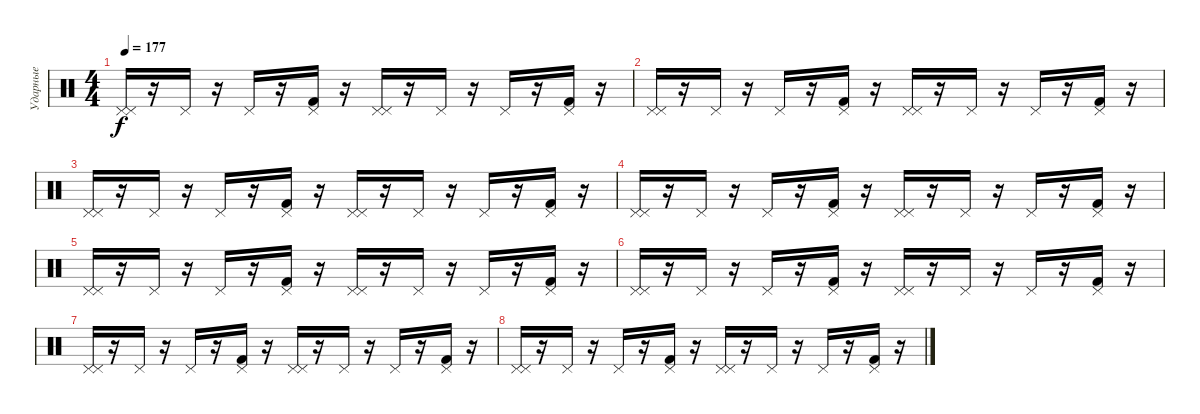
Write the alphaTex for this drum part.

\track ("Ударные" "Ударные") {instrument percussion}
\staff {score}
\articulation defaults
\ts (4 4)
\tempo 177
\clef neutral
\ks c
("Pedal Hi-Hat (hit)" "Pedal Hi-Hat (hit)").16{dy f} r.16 "Pedal Hi-Hat (hit)".16 r.16 "Pedal Hi-Hat (hit)".16 r.16 ("Kick (hit) 2" "Pedal Hi-Hat (hit)").16 r.16 ("Pedal Hi-Hat (hit)" "Pedal Hi-Hat (hit)").16 r.16 "Pedal Hi-Hat (hit)".16 r.16 "Pedal Hi-Hat (hit)".16 r.16 ("Kick (hit) 2" "Pedal Hi-Hat (hit)").16 r.16 |
("Pedal Hi-Hat (hit)" "Pedal Hi-Hat (hit)").16 r.16 "Pedal Hi-Hat (hit)".16 r.16 "Pedal Hi-Hat (hit)".16 r.16 ("Kick (hit) 2" "Pedal Hi-Hat (hit)").16 r.16 ("Pedal Hi-Hat (hit)" "Pedal Hi-Hat (hit)").16 r.16 "Pedal Hi-Hat (hit)".16 r.16 "Pedal Hi-Hat (hit)".16 r.16 ("Kick (hit) 2" "Pedal Hi-Hat (hit)").16 r.16 |
("Pedal Hi-Hat (hit)" "Pedal Hi-Hat (hit)").16 r.16 "Pedal Hi-Hat (hit)".16 r.16 "Pedal Hi-Hat (hit)".16 r.16 ("Kick (hit) 2" "Pedal Hi-Hat (hit)").16 r.16 ("Pedal Hi-Hat (hit)" "Pedal Hi-Hat (hit)").16 r.16 "Pedal Hi-Hat (hit)".16 r.16 "Pedal Hi-Hat (hit)".16 r.16 ("Kick (hit) 2" "Pedal Hi-Hat (hit)").16 r.16 |
("Pedal Hi-Hat (hit)" "Pedal Hi-Hat (hit)").16 r.16 "Pedal Hi-Hat (hit)".16 r.16 "Pedal Hi-Hat (hit)".16 r.16 ("Kick (hit) 2" "Pedal Hi-Hat (hit)").16 r.16 ("Pedal Hi-Hat (hit)" "Pedal Hi-Hat (hit)").16 r.16 "Pedal Hi-Hat (hit)".16 r.16 "Pedal Hi-Hat (hit)".16 r.16 ("Kick (hit) 2" "Pedal Hi-Hat (hit)").16 r.16 |
("Pedal Hi-Hat (hit)" "Pedal Hi-Hat (hit)").16 r.16 "Pedal Hi-Hat (hit)".16 r.16 "Pedal Hi-Hat (hit)".16 r.16 ("Kick (hit) 2" "Pedal Hi-Hat (hit)").16 r.16 ("Pedal Hi-Hat (hit)" "Pedal Hi-Hat (hit)").16 r.16 "Pedal Hi-Hat (hit)".16 r.16 "Pedal Hi-Hat (hit)".16 r.16 ("Kick (hit) 2" "Pedal Hi-Hat (hit)").16 r.16 |
("Pedal Hi-Hat (hit)" "Pedal Hi-Hat (hit)").16 r.16 "Pedal Hi-Hat (hit)".16 r.16 "Pedal Hi-Hat (hit)".16 r.16 ("Kick (hit) 2" "Pedal Hi-Hat (hit)").16 r.16 ("Pedal Hi-Hat (hit)" "Pedal Hi-Hat (hit)").16 r.16 "Pedal Hi-Hat (hit)".16 r.16 "Pedal Hi-Hat (hit)".16 r.16 ("Kick (hit) 2" "Pedal Hi-Hat (hit)").16 r.16 |
("Pedal Hi-Hat (hit)" "Pedal Hi-Hat (hit)").16 r.16 "Pedal Hi-Hat (hit)".16 r.16 "Pedal Hi-Hat (hit)".16 r.16 ("Kick (hit) 2" "Pedal Hi-Hat (hit)").16 r.16 ("Pedal Hi-Hat (hit)" "Pedal Hi-Hat (hit)").16 r.16 "Pedal Hi-Hat (hit)".16 r.16 "Pedal Hi-Hat (hit)".16 r.16 ("Kick (hit) 2" "Pedal Hi-Hat (hit)").16 r.16 |
("Pedal Hi-Hat (hit)" "Pedal Hi-Hat (hit)").16 r.16 "Pedal Hi-Hat (hit)".16 r.16 "Pedal Hi-Hat (hit)".16 r.16 ("Kick (hit) 2" "Pedal Hi-Hat (hit)").16 r.16 ("Pedal Hi-Hat (hit)" "Pedal Hi-Hat (hit)").16 r.16 "Pedal Hi-Hat (hit)".16 r.16 "Pedal Hi-Hat (hit)".16 r.16 ("Kick (hit) 2" "Pedal Hi-Hat (hit)").16 r.16
